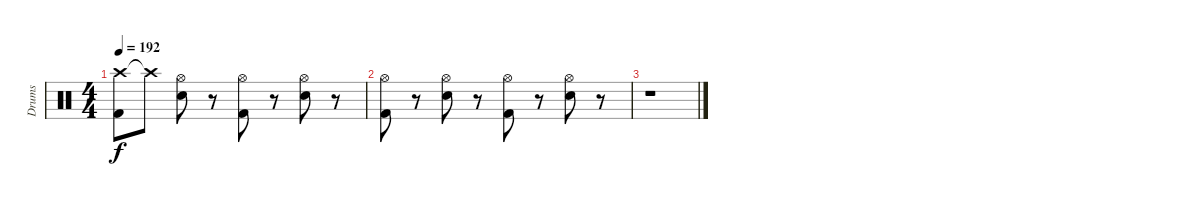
\track ("Drums" "Drums") {instrument percussion}
\staff {score}
\articulation defaults
\ts (4 4)
\tempo 192
\clef neutral
\ks c
("Crash high (hit)" "Kick (hit) 2").8{dy f} "Crash high (hit)"{t}.8 ("Hi-Hat (open)" "Snare (hit) 2").8 r.8 ("Hi-Hat (open)" "Kick (hit) 2").8 r.8 ("Hi-Hat (open)" "Snare (hit) 2").8 r.8 |
("Hi-Hat (open)" "Kick (hit) 2").8 r.8 ("Hi-Hat (open)" "Snare (hit) 2").8 r.8 ("Hi-Hat (open)" "Kick (hit) 2").8 r.8 ("Hi-Hat (open)" "Snare (hit) 2").8 r.8 |
r.1
